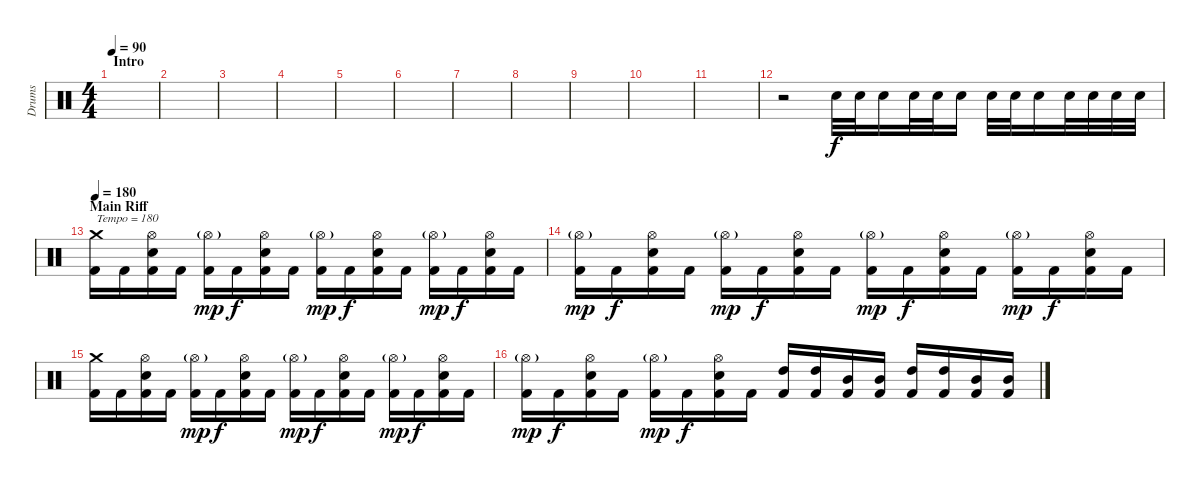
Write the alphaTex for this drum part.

\track ("Drums" "Drums") {instrument percussion}
\staff {score}
\articulation defaults
\ts (4 4)
\section ("" "Intro")
\tempo 90
\clef neutral
\ks c
|
|
|
|
|
|
|
|
|
|
|
r.2 "Snare (hit) 2".32 "Snare (hit) 2".32 "Snare (hit) 2".16 "Snare (hit) 2".32 "Snare (hit) 2".32 "Snare (hit) 2".16 "Snare (hit) 2".32 "Snare (hit) 2".32 "Snare (hit) 2".16 "Snare (hit) 2".32 "Snare (hit) 2".32 "Snare (hit) 2".32 "Snare (hit) 2".32 |
\section ("" "Main Riff")
\tempo 180
("Crash medium (hit)" "Kick (hit) 2").16{txt "Tempo = 180"} "Kick (hit) 2".16 ("Hi-Hat (open)" "Snare (hit) 2" "Kick (hit) 2").16 "Kick (hit) 2".16 ("Hi-Hat (open)"{g} "Kick (hit) 2").16{dy mp} "Kick (hit) 2".16{dy f} ("Hi-Hat (open)" "Snare (hit) 2" "Kick (hit) 2").16 "Kick (hit) 2".16 ("Hi-Hat (open)"{g} "Kick (hit) 2").16{dy mp} "Kick (hit) 2".16{dy f} ("Hi-Hat (open)" "Snare (hit) 2" "Kick (hit) 2").16 "Kick (hit) 2".16 ("Hi-Hat (open)"{g} "Kick (hit) 2").16{dy mp} "Kick (hit) 2".16{dy f} ("Hi-Hat (open)" "Snare (hit) 2" "Kick (hit) 2").16 "Kick (hit) 2".16 |
("Hi-Hat (open)"{g} "Kick (hit) 2").16{dy mp} "Kick (hit) 2".16{dy f} ("Hi-Hat (open)" "Snare (hit) 2" "Kick (hit) 2").16 "Kick (hit) 2".16 ("Hi-Hat (open)"{g} "Kick (hit) 2").16{dy mp} "Kick (hit) 2".16{dy f} ("Hi-Hat (open)" "Snare (hit) 2" "Kick (hit) 2").16 "Kick (hit) 2".16 ("Hi-Hat (open)"{g} "Kick (hit) 2").16{dy mp} "Kick (hit) 2".16{dy f} ("Hi-Hat (open)" "Snare (hit) 2" "Kick (hit) 2").16 "Kick (hit) 2".16 ("Hi-Hat (open)"{g} "Kick (hit) 2").16{dy mp} "Kick (hit) 2".16{dy f} ("Hi-Hat (open)" "Snare (hit) 2" "Kick (hit) 2").16 "Kick (hit) 2".16 |
("Crash medium (hit)" "Kick (hit) 2").16 "Kick (hit) 2".16 ("Hi-Hat (open)" "Snare (hit) 2" "Kick (hit) 2").16 "Kick (hit) 2".16 ("Hi-Hat (open)"{g} "Kick (hit) 2").16{dy mp} "Kick (hit) 2".16{dy f} ("Hi-Hat (open)" "Snare (hit) 2" "Kick (hit) 2").16 "Kick (hit) 2".16 ("Hi-Hat (open)"{g} "Kick (hit) 2").16{dy mp} "Kick (hit) 2".16{dy f} ("Hi-Hat (open)" "Snare (hit) 2" "Kick (hit) 2").16 "Kick (hit) 2".16 ("Hi-Hat (open)"{g} "Kick (hit) 2").16{dy mp} "Kick (hit) 2".16{dy f} ("Hi-Hat (open)" "Snare (hit) 2" "Kick (hit) 2").16 "Kick (hit) 2".16 |
("Hi-Hat (open)"{g} "Kick (hit) 2").16{dy mp} "Kick (hit) 2".16{dy f} ("Hi-Hat (open)" "Snare (hit) 2" "Kick (hit) 2").16 "Kick (hit) 2".16 ("Hi-Hat (open)"{g} "Kick (hit) 2").16{dy mp} "Kick (hit) 2".16{dy f} ("Hi-Hat (open)" "Snare (hit) 2" "Kick (hit) 2").16 "Kick (hit) 2".16 ("High Tom (hit)" "Kick (hit) 2").16 ("High Tom (hit)" "Kick (hit) 2").16 ("Mid Tom (hit)" "Kick (hit) 2").16 ("Mid Tom (hit)" "Kick (hit) 2").16 ("High Tom (hit)" "Kick (hit) 2").16 ("High Tom (hit)" "Kick (hit) 2").16 ("Mid Tom (hit)" "Kick (hit) 2").16 ("Mid Tom (hit)" "Kick (hit) 2").16
